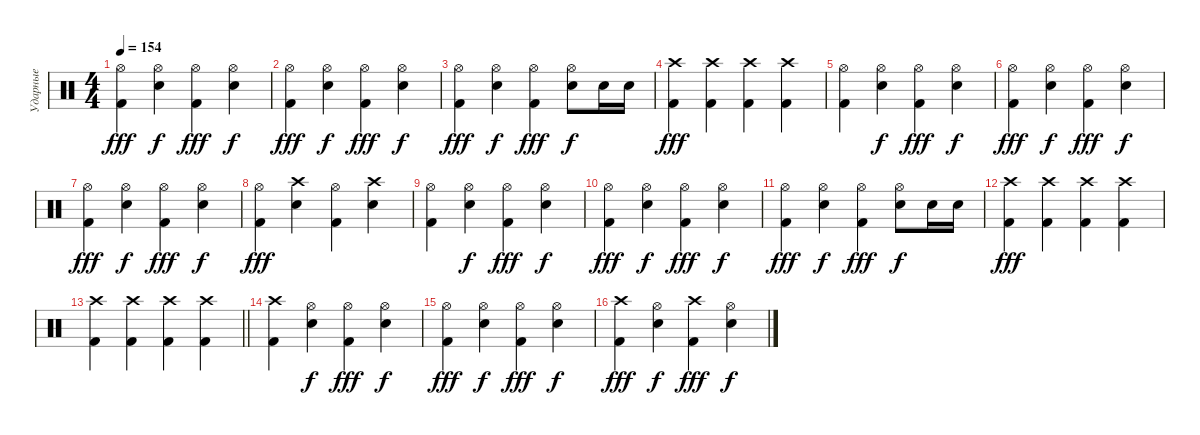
\track ("Ударные" "Ударные") {instrument percussion}
\staff
\articulation defaults
\ts (4 4)
\tempo 154
\clef neutral
\ks c
("Kick (hit) 2" "Hi-Hat (open)").4{dy fff} ("Snare (hit) 2" "Hi-Hat (open)").4{dy f} ("Kick (hit) 2" "Hi-Hat (open)").4{dy fff} ("Snare (hit) 2" "Hi-Hat (open)").4{dy f} |
("Kick (hit) 2" "Hi-Hat (open)").4{dy fff} ("Snare (hit) 2" "Hi-Hat (open)").4{dy f} ("Kick (hit) 2" "Hi-Hat (open)").4{dy fff} ("Snare (hit) 2" "Hi-Hat (open)").4{dy f} |
("Kick (hit) 2" "Hi-Hat (open)").4{dy fff} ("Snare (hit) 2" "Hi-Hat (open)").4{dy f} ("Kick (hit) 2" "Hi-Hat (open)").4{dy fff} ("Snare (hit) 2" "Hi-Hat (open)").8{dy f} "Snare (hit) 2".16 "Snare (hit) 2".16 |
("Kick (hit) 2" "Crash high (hit)").4{dy fff} ("Kick (hit) 2" "Crash high (hit)").4 ("Kick (hit) 2" "Crash high (hit)").4 ("Kick (hit) 2" "Crash high (hit)").4 |
("Kick (hit) 2" "Hi-Hat (open)").4 ("Snare (hit) 2" "Hi-Hat (open)").4{dy f} ("Kick (hit) 2" "Hi-Hat (open)").4{dy fff} ("Snare (hit) 2" "Hi-Hat (open)").4{dy f} |
("Kick (hit) 2" "Hi-Hat (open)").4{dy fff} ("Snare (hit) 2" "Hi-Hat (open)").4{dy f} ("Kick (hit) 2" "Hi-Hat (open)").4{dy fff} ("Snare (hit) 2" "Hi-Hat (open)").4{dy f} |
("Kick (hit) 2" "Hi-Hat (open)").4{dy fff} ("Snare (hit) 2" "Hi-Hat (open)").4{dy f} ("Kick (hit) 2" "Hi-Hat (open)").4{dy fff} ("Snare (hit) 2" "Hi-Hat (open)").4{dy f} |
("Kick (hit) 2" "Hi-Hat (open)").4{dy fff} ("Snare (hit) 2" "Crash high (hit)").4 ("Kick (hit) 2" "Hi-Hat (open)").4 ("Snare (hit) 2" "Crash high (hit)").4 |
("Kick (hit) 2" "Hi-Hat (open)").4 ("Snare (hit) 2" "Hi-Hat (open)").4{dy f} ("Kick (hit) 2" "Hi-Hat (open)").4{dy fff} ("Snare (hit) 2" "Hi-Hat (open)").4{dy f} |
("Kick (hit) 2" "Hi-Hat (open)").4{dy fff} ("Snare (hit) 2" "Hi-Hat (open)").4{dy f} ("Kick (hit) 2" "Hi-Hat (open)").4{dy fff} ("Snare (hit) 2" "Hi-Hat (open)").4{dy f} |
("Kick (hit) 2" "Hi-Hat (open)").4{dy fff} ("Snare (hit) 2" "Hi-Hat (open)").4{dy f} ("Kick (hit) 2" "Hi-Hat (open)").4{dy fff} ("Snare (hit) 2" "Hi-Hat (open)").8{dy f} "Snare (hit) 2".16 "Snare (hit) 2".16 |
("Kick (hit) 2" "Crash high (hit)").4{dy fff} ("Kick (hit) 2" "Crash high (hit)").4 ("Kick (hit) 2" "Crash high (hit)").4 ("Kick (hit) 2" "Crash high (hit)").4 |
\barLineRight lightlight
("Kick (hit) 2" "Crash high (hit)").4 ("Kick (hit) 2" "Crash high (hit)").4 ("Kick (hit) 2" "Crash high (hit)").4 ("Kick (hit) 2" "Crash high (hit)").4 |
("Kick (hit) 2" "Crash high (hit)").4 ("Snare (hit) 2" "Hi-Hat (open)").4{dy f} ("Kick (hit) 2" "Hi-Hat (open)").4{dy fff} ("Snare (hit) 2" "Hi-Hat (open)").4{dy f} |
("Kick (hit) 2" "Hi-Hat (open)").4{dy fff} ("Snare (hit) 2" "Hi-Hat (open)").4{dy f} ("Kick (hit) 2" "Hi-Hat (open)").4{dy fff} ("Snare (hit) 2" "Hi-Hat (open)").4{dy f} |
("Kick (hit) 2" "Crash high (hit)").4{dy fff} ("Snare (hit) 2" "Hi-Hat (open)").4{dy f} ("Kick (hit) 2" "Crash high (hit)").4{dy fff} ("Snare (hit) 2" "Hi-Hat (open)").4{dy f}
